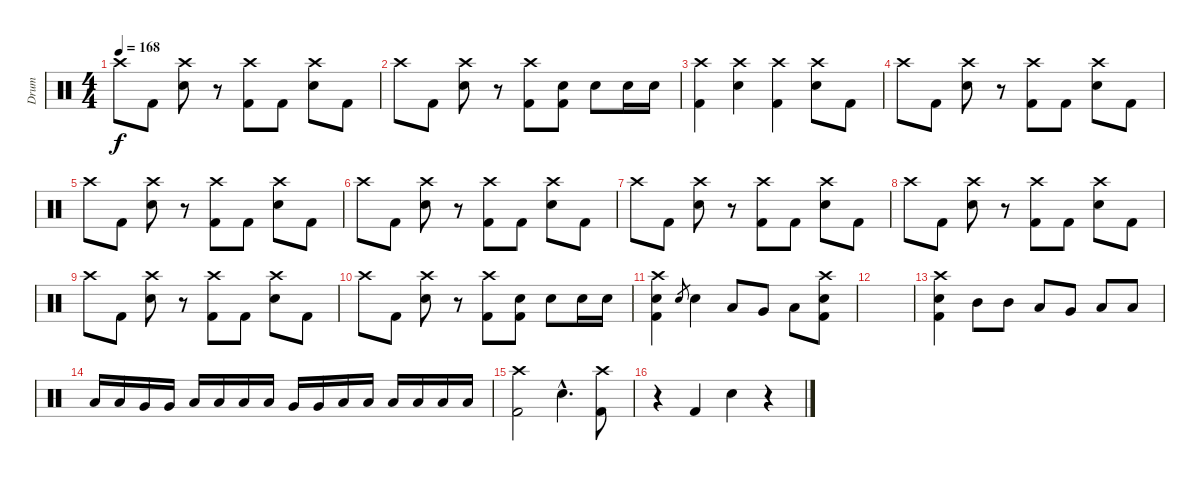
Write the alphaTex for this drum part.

\track ("Drum" "Drum") {instrument percussion}
\staff {score}
\articulation defaults
\ts (4 4)
\tempo 168
\clef neutral
\ks c "Crash high (hit)".8{dy f} "Kick (hit) 2".8
("Crash high (hit)" "Electric Snare (hit)").8 r.8 ("Crash high (hit)" "Kick (hit) 2").8 "Kick (hit) 2".8 ("Crash high (hit)" "Electric Snare (hit)").8 "Kick (hit) 2".8 |
"Crash high (hit)".8 "Kick (hit) 2".8 ("Crash high (hit)" "Electric Snare (hit)").8 r.8 ("Crash high (hit)" "Kick (hit) 2").8 ("Electric Snare (hit)" "Kick (hit) 2").8 "Electric Snare (hit)".8 "Electric Snare (hit)".16 "Electric Snare (hit)".16 |
("Crash high (hit)" "Kick (hit) 2").4 ("Crash high (hit)" "Electric Snare (hit)").4 ("Crash high (hit)" "Kick (hit) 2").4 ("Crash high (hit)" "Electric Snare (hit)").8 "Kick (hit) 2".8 |
"Crash high (hit)".8 "Kick (hit) 2".8 ("Crash high (hit)" "Electric Snare (hit)").8 r.8 ("Crash high (hit)" "Kick (hit) 2").8 "Kick (hit) 2".8 ("Crash high (hit)" "Electric Snare (hit)").8 "Kick (hit) 2".8 |
"Crash high (hit)".8 "Kick (hit) 2".8 ("Crash high (hit)" "Electric Snare (hit)").8 r.8 ("Crash high (hit)" "Kick (hit) 2").8 "Kick (hit) 2".8 ("Crash high (hit)" "Electric Snare (hit)").8 "Kick (hit) 2".8 |
"Crash high (hit)".8 "Kick (hit) 2".8 ("Crash high (hit)" "Electric Snare (hit)").8 r.8 ("Crash high (hit)" "Kick (hit) 2").8 "Kick (hit) 2".8 ("Crash high (hit)" "Electric Snare (hit)").8 "Kick (hit) 2".8 |
"Crash high (hit)".8 "Kick (hit) 2".8 ("Crash high (hit)" "Electric Snare (hit)").8 r.8 ("Crash high (hit)" "Kick (hit) 2").8 "Kick (hit) 2".8 ("Crash high (hit)" "Electric Snare (hit)").8 "Kick (hit) 2".8 |
"Crash high (hit)".8 "Kick (hit) 2".8 ("Crash high (hit)" "Electric Snare (hit)").8 r.8 ("Crash high (hit)" "Kick (hit) 2").8 "Kick (hit) 2".8 ("Crash high (hit)" "Electric Snare (hit)").8 "Kick (hit) 2".8 |
"Crash high (hit)".8 "Kick (hit) 2".8 ("Crash high (hit)" "Electric Snare (hit)").8 r.8 ("Crash high (hit)" "Kick (hit) 2").8 "Kick (hit) 2".8 ("Crash high (hit)" "Electric Snare (hit)").8 "Kick (hit) 2".8 |
"Crash high (hit)".8 "Kick (hit) 2".8 ("Crash high (hit)" "Electric Snare (hit)").8 r.8 ("Crash high (hit)" "Kick (hit) 2").8 ("Electric Snare (hit)" "Kick (hit) 2").8 "Electric Snare (hit)".8 "Electric Snare (hit)".16 "Electric Snare (hit)".16 |
("Crash high (hit)" "Electric Snare (hit)" "Kick (hit) 2").4 "Electric Snare (hit)".8{gr} "Electric Snare (hit)".4 "Low Tom (hit)".8 "Very Low Tom (hit)".8 "Low Floor Tom (hit)".8 ("Crash high (hit)" "Electric Snare (hit)" "Kick (hit) 2").8 |
|
("Crash high (hit)" "Electric Snare (hit)" "Kick (hit) 2").4 "Mid Tom (hit)".8 "Mid Tom (hit)".8 "Low Tom (hit)".8 "Very Low Tom (hit)".8 "Low Floor Tom (hit)".8 "Low Floor Tom (hit)".8 |
"Low Tom (hit)".16 "Low Tom (hit)".16 "Very Low Tom (hit)".16 "Very Low Tom (hit)".16 "Low Floor Tom (hit)".16 "Low Floor Tom (hit)".16 "Low Tom (hit)".16 "Low Tom (hit)".16 "Very Low Tom (hit)".16 "Very Low Tom (hit)".16 "Low Floor Tom (hit)".16 "Low Floor Tom (hit)".16 "Low Tom (hit)".16 "Low Tom (hit)".16 "Low Tom (hit)".16 "Low Tom (hit)".16 |
("Crash high (hit)" "Kick (hit) 2").2 "Electric Snare (hit)"{hac}.4{d} ("Crash high (hit)" "Kick (hit) 2").8 |
r.4 "Kick (hit) 2".4 "Electric Snare (hit)".4 r.4
